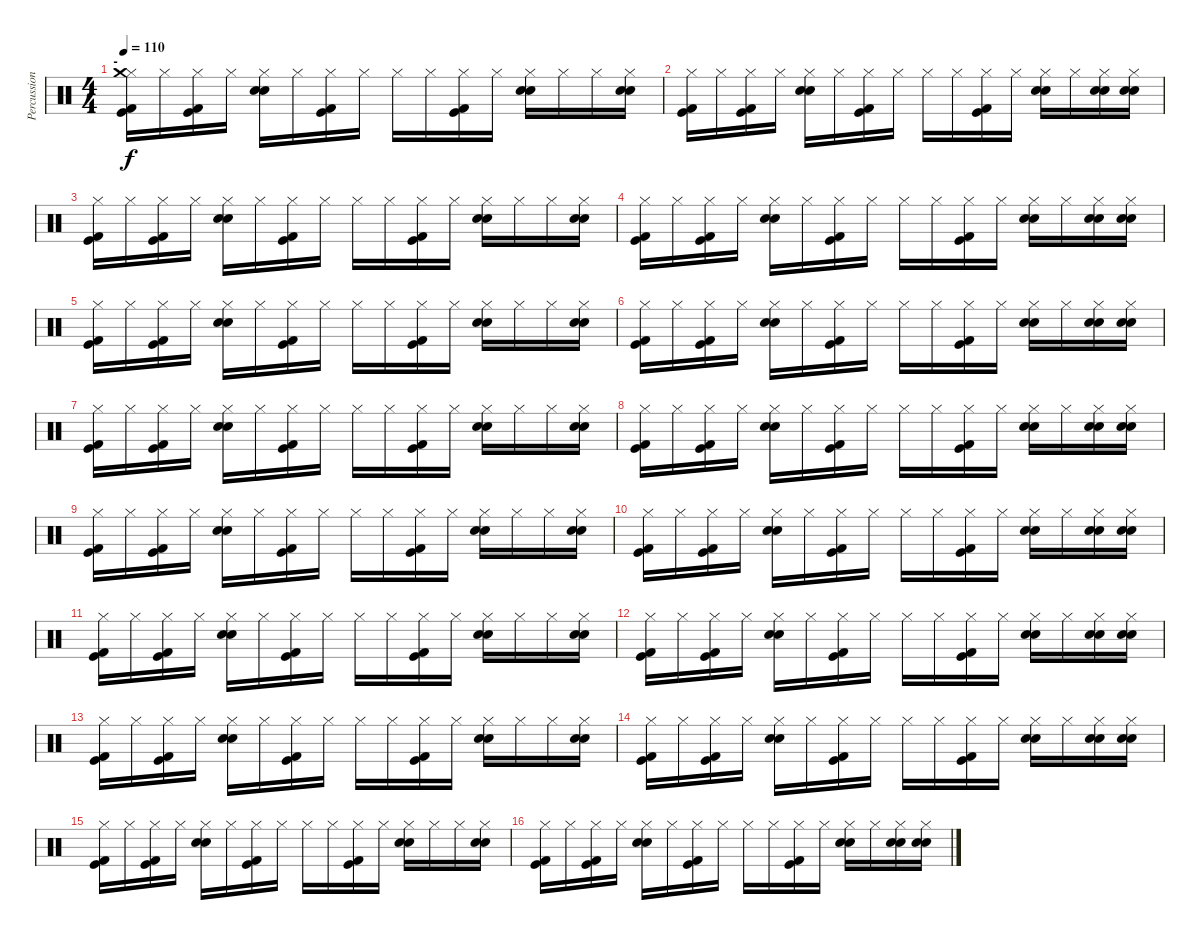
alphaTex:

\track ("Percussion" "Percussion") {instrument percussion}
\staff {score}
\articulation defaults
\ts (4 4)
\section ("" "-")
\tempo 110
\clef neutral
\ks c
("Hi-Hat (closed)" "Crash medium (hit)" "Kick (hit) 2" "Kick (hit)").16{dy f} "Hi-Hat (closed)".16 ("Hi-Hat (closed)" "Kick (hit) 2" "Kick (hit)").16 "Hi-Hat (closed)".16 ("Hi-Hat (closed)" "Electric Snare (hit)" "Snare (hit) 2").16 "Hi-Hat (closed)".16 ("Hi-Hat (closed)" "Kick (hit) 2" "Kick (hit)").16 "Hi-Hat (closed)".16 "Hi-Hat (closed)".16 "Hi-Hat (closed)".16 ("Hi-Hat (closed)" "Kick (hit) 2" "Kick (hit)").16 "Hi-Hat (closed)".16 ("Hi-Hat (closed)" "Electric Snare (hit)" "Snare (hit) 2").16 "Hi-Hat (closed)".16 "Hi-Hat (closed)".16 ("Hi-Hat (closed)" "Electric Snare (hit)" "Snare (hit) 2").16 |
("Hi-Hat (closed)" "Kick (hit) 2" "Kick (hit)").16 "Hi-Hat (closed)".16 ("Hi-Hat (closed)" "Kick (hit) 2" "Kick (hit)").16 "Hi-Hat (closed)".16 ("Hi-Hat (closed)" "Electric Snare (hit)" "Snare (hit) 2").16 "Hi-Hat (closed)".16 ("Hi-Hat (closed)" "Kick (hit) 2" "Kick (hit)").16 "Hi-Hat (closed)".16 "Hi-Hat (closed)".16 "Hi-Hat (closed)".16 ("Hi-Hat (closed)" "Kick (hit) 2" "Kick (hit)").16 "Hi-Hat (closed)".16 ("Hi-Hat (closed)" "Electric Snare (hit)" "Snare (hit) 2").16 "Hi-Hat (closed)".16 ("Hi-Hat (closed)" "Electric Snare (hit)" "Snare (hit) 2").16 ("Hi-Hat (closed)" "Electric Snare (hit)" "Snare (hit) 2").16 |
("Hi-Hat (closed)" "Kick (hit) 2" "Kick (hit)").16 "Hi-Hat (closed)".16 ("Hi-Hat (closed)" "Kick (hit) 2" "Kick (hit)").16 "Hi-Hat (closed)".16 ("Hi-Hat (closed)" "Electric Snare (hit)" "Snare (hit) 2").16 "Hi-Hat (closed)".16 ("Hi-Hat (closed)" "Kick (hit) 2" "Kick (hit)").16 "Hi-Hat (closed)".16 "Hi-Hat (closed)".16 "Hi-Hat (closed)".16 ("Hi-Hat (closed)" "Kick (hit) 2" "Kick (hit)").16 "Hi-Hat (closed)".16 ("Hi-Hat (closed)" "Electric Snare (hit)" "Snare (hit) 2").16 "Hi-Hat (closed)".16 "Hi-Hat (closed)".16 ("Hi-Hat (closed)" "Electric Snare (hit)" "Snare (hit) 2").16 |
("Hi-Hat (closed)" "Kick (hit) 2" "Kick (hit)").16 "Hi-Hat (closed)".16 ("Hi-Hat (closed)" "Kick (hit) 2" "Kick (hit)").16 "Hi-Hat (closed)".16 ("Hi-Hat (closed)" "Electric Snare (hit)" "Snare (hit) 2").16 "Hi-Hat (closed)".16 ("Hi-Hat (closed)" "Kick (hit) 2" "Kick (hit)").16 "Hi-Hat (closed)".16 "Hi-Hat (closed)".16 "Hi-Hat (closed)".16 ("Hi-Hat (closed)" "Kick (hit) 2" "Kick (hit)").16 "Hi-Hat (closed)".16 ("Hi-Hat (closed)" "Electric Snare (hit)" "Snare (hit) 2").16 "Hi-Hat (closed)".16 ("Hi-Hat (closed)" "Electric Snare (hit)" "Snare (hit) 2").16 ("Hi-Hat (closed)" "Electric Snare (hit)" "Snare (hit) 2").16 |
("Hi-Hat (closed)" "Kick (hit) 2" "Kick (hit)").16 "Hi-Hat (closed)".16 ("Hi-Hat (closed)" "Kick (hit) 2" "Kick (hit)").16 "Hi-Hat (closed)".16 ("Hi-Hat (closed)" "Electric Snare (hit)" "Snare (hit) 2").16 "Hi-Hat (closed)".16 ("Hi-Hat (closed)" "Kick (hit) 2" "Kick (hit)").16 "Hi-Hat (closed)".16 "Hi-Hat (closed)".16 "Hi-Hat (closed)".16 ("Hi-Hat (closed)" "Kick (hit) 2" "Kick (hit)").16 "Hi-Hat (closed)".16 ("Hi-Hat (closed)" "Electric Snare (hit)" "Snare (hit) 2").16 "Hi-Hat (closed)".16 "Hi-Hat (closed)".16 ("Hi-Hat (closed)" "Electric Snare (hit)" "Snare (hit) 2").16 |
("Hi-Hat (closed)" "Kick (hit) 2" "Kick (hit)").16 "Hi-Hat (closed)".16 ("Hi-Hat (closed)" "Kick (hit) 2" "Kick (hit)").16 "Hi-Hat (closed)".16 ("Hi-Hat (closed)" "Electric Snare (hit)" "Snare (hit) 2").16 "Hi-Hat (closed)".16 ("Hi-Hat (closed)" "Kick (hit) 2" "Kick (hit)").16 "Hi-Hat (closed)".16 "Hi-Hat (closed)".16 "Hi-Hat (closed)".16 ("Hi-Hat (closed)" "Kick (hit) 2" "Kick (hit)").16 "Hi-Hat (closed)".16 ("Hi-Hat (closed)" "Electric Snare (hit)" "Snare (hit) 2").16 "Hi-Hat (closed)".16 ("Hi-Hat (closed)" "Electric Snare (hit)" "Snare (hit) 2").16 ("Hi-Hat (closed)" "Electric Snare (hit)" "Snare (hit) 2").16 |
("Hi-Hat (closed)" "Kick (hit) 2" "Kick (hit)").16 "Hi-Hat (closed)".16 ("Hi-Hat (closed)" "Kick (hit) 2" "Kick (hit)").16 "Hi-Hat (closed)".16 ("Hi-Hat (closed)" "Electric Snare (hit)" "Snare (hit) 2").16 "Hi-Hat (closed)".16 ("Hi-Hat (closed)" "Kick (hit) 2" "Kick (hit)").16 "Hi-Hat (closed)".16 "Hi-Hat (closed)".16 "Hi-Hat (closed)".16 ("Hi-Hat (closed)" "Kick (hit) 2" "Kick (hit)").16 "Hi-Hat (closed)".16 ("Hi-Hat (closed)" "Electric Snare (hit)" "Snare (hit) 2").16 "Hi-Hat (closed)".16 "Hi-Hat (closed)".16 ("Hi-Hat (closed)" "Electric Snare (hit)" "Snare (hit) 2").16 |
("Hi-Hat (closed)" "Kick (hit) 2" "Kick (hit)").16 "Hi-Hat (closed)".16 ("Hi-Hat (closed)" "Kick (hit) 2" "Kick (hit)").16 "Hi-Hat (closed)".16 ("Hi-Hat (closed)" "Electric Snare (hit)" "Snare (hit) 2").16 "Hi-Hat (closed)".16 ("Hi-Hat (closed)" "Kick (hit) 2" "Kick (hit)").16 "Hi-Hat (closed)".16 "Hi-Hat (closed)".16 "Hi-Hat (closed)".16 ("Hi-Hat (closed)" "Kick (hit) 2" "Kick (hit)").16 "Hi-Hat (closed)".16 ("Hi-Hat (closed)" "Electric Snare (hit)" "Snare (hit) 2").16 "Hi-Hat (closed)".16 ("Hi-Hat (closed)" "Electric Snare (hit)" "Snare (hit) 2").16 ("Hi-Hat (closed)" "Electric Snare (hit)" "Snare (hit) 2").16 |
("Hi-Hat (closed)" "Kick (hit) 2" "Kick (hit)").16 "Hi-Hat (closed)".16 ("Hi-Hat (closed)" "Kick (hit) 2" "Kick (hit)").16 "Hi-Hat (closed)".16 ("Hi-Hat (closed)" "Electric Snare (hit)" "Snare (hit) 2").16 "Hi-Hat (closed)".16 ("Hi-Hat (closed)" "Kick (hit) 2" "Kick (hit)").16 "Hi-Hat (closed)".16 "Hi-Hat (closed)".16 "Hi-Hat (closed)".16 ("Hi-Hat (closed)" "Kick (hit) 2" "Kick (hit)").16 "Hi-Hat (closed)".16 ("Hi-Hat (closed)" "Electric Snare (hit)" "Snare (hit) 2").16 "Hi-Hat (closed)".16 "Hi-Hat (closed)".16 ("Hi-Hat (closed)" "Electric Snare (hit)" "Snare (hit) 2").16 |
("Hi-Hat (closed)" "Kick (hit) 2" "Kick (hit)").16 "Hi-Hat (closed)".16 ("Hi-Hat (closed)" "Kick (hit) 2" "Kick (hit)").16 "Hi-Hat (closed)".16 ("Hi-Hat (closed)" "Electric Snare (hit)" "Snare (hit) 2").16 "Hi-Hat (closed)".16 ("Hi-Hat (closed)" "Kick (hit) 2" "Kick (hit)").16 "Hi-Hat (closed)".16 "Hi-Hat (closed)".16 "Hi-Hat (closed)".16 ("Hi-Hat (closed)" "Kick (hit) 2" "Kick (hit)").16 "Hi-Hat (closed)".16 ("Hi-Hat (closed)" "Electric Snare (hit)" "Snare (hit) 2").16 "Hi-Hat (closed)".16 ("Hi-Hat (closed)" "Electric Snare (hit)" "Snare (hit) 2").16 ("Hi-Hat (closed)" "Electric Snare (hit)" "Snare (hit) 2").16 |
("Hi-Hat (closed)" "Kick (hit) 2" "Kick (hit)").16 "Hi-Hat (closed)".16 ("Hi-Hat (closed)" "Kick (hit) 2" "Kick (hit)").16 "Hi-Hat (closed)".16 ("Hi-Hat (closed)" "Electric Snare (hit)" "Snare (hit) 2").16 "Hi-Hat (closed)".16 ("Hi-Hat (closed)" "Kick (hit) 2" "Kick (hit)").16 "Hi-Hat (closed)".16 "Hi-Hat (closed)".16 "Hi-Hat (closed)".16 ("Hi-Hat (closed)" "Kick (hit) 2" "Kick (hit)").16 "Hi-Hat (closed)".16 ("Hi-Hat (closed)" "Electric Snare (hit)" "Snare (hit) 2").16 "Hi-Hat (closed)".16 "Hi-Hat (closed)".16 ("Hi-Hat (closed)" "Electric Snare (hit)" "Snare (hit) 2").16 |
("Hi-Hat (closed)" "Kick (hit) 2" "Kick (hit)").16 "Hi-Hat (closed)".16 ("Hi-Hat (closed)" "Kick (hit) 2" "Kick (hit)").16 "Hi-Hat (closed)".16 ("Hi-Hat (closed)" "Electric Snare (hit)" "Snare (hit) 2").16 "Hi-Hat (closed)".16 ("Hi-Hat (closed)" "Kick (hit) 2" "Kick (hit)").16 "Hi-Hat (closed)".16 "Hi-Hat (closed)".16 "Hi-Hat (closed)".16 ("Hi-Hat (closed)" "Kick (hit) 2" "Kick (hit)").16 "Hi-Hat (closed)".16 ("Hi-Hat (closed)" "Electric Snare (hit)" "Snare (hit) 2").16 "Hi-Hat (closed)".16 ("Hi-Hat (closed)" "Electric Snare (hit)" "Snare (hit) 2").16 ("Hi-Hat (closed)" "Electric Snare (hit)" "Snare (hit) 2").16 |
("Hi-Hat (closed)" "Kick (hit) 2" "Kick (hit)").16 "Hi-Hat (closed)".16 ("Hi-Hat (closed)" "Kick (hit) 2" "Kick (hit)").16 "Hi-Hat (closed)".16 ("Hi-Hat (closed)" "Electric Snare (hit)" "Snare (hit) 2").16 "Hi-Hat (closed)".16 ("Hi-Hat (closed)" "Kick (hit) 2" "Kick (hit)").16 "Hi-Hat (closed)".16 "Hi-Hat (closed)".16 "Hi-Hat (closed)".16 ("Hi-Hat (closed)" "Kick (hit) 2" "Kick (hit)").16 "Hi-Hat (closed)".16 ("Hi-Hat (closed)" "Electric Snare (hit)" "Snare (hit) 2").16 "Hi-Hat (closed)".16 "Hi-Hat (closed)".16 ("Hi-Hat (closed)" "Electric Snare (hit)" "Snare (hit) 2").16 |
("Hi-Hat (closed)" "Kick (hit) 2" "Kick (hit)").16 "Hi-Hat (closed)".16 ("Hi-Hat (closed)" "Kick (hit) 2" "Kick (hit)").16 "Hi-Hat (closed)".16 ("Hi-Hat (closed)" "Electric Snare (hit)" "Snare (hit) 2").16 "Hi-Hat (closed)".16 ("Hi-Hat (closed)" "Kick (hit) 2" "Kick (hit)").16 "Hi-Hat (closed)".16 "Hi-Hat (closed)".16 "Hi-Hat (closed)".16 ("Hi-Hat (closed)" "Kick (hit) 2" "Kick (hit)").16 "Hi-Hat (closed)".16 ("Hi-Hat (closed)" "Electric Snare (hit)" "Snare (hit) 2").16 "Hi-Hat (closed)".16 ("Hi-Hat (closed)" "Electric Snare (hit)" "Snare (hit) 2").16 ("Hi-Hat (closed)" "Electric Snare (hit)" "Snare (hit) 2").16 |
("Hi-Hat (closed)" "Kick (hit) 2" "Kick (hit)").16 "Hi-Hat (closed)".16 ("Hi-Hat (closed)" "Kick (hit) 2" "Kick (hit)").16 "Hi-Hat (closed)".16 ("Hi-Hat (closed)" "Electric Snare (hit)" "Snare (hit) 2").16 "Hi-Hat (closed)".16 ("Hi-Hat (closed)" "Kick (hit) 2" "Kick (hit)").16 "Hi-Hat (closed)".16 "Hi-Hat (closed)".16 "Hi-Hat (closed)".16 ("Hi-Hat (closed)" "Kick (hit) 2" "Kick (hit)").16 "Hi-Hat (closed)".16 ("Hi-Hat (closed)" "Electric Snare (hit)" "Snare (hit) 2").16 "Hi-Hat (closed)".16 "Hi-Hat (closed)".16 ("Hi-Hat (closed)" "Electric Snare (hit)" "Snare (hit) 2").16 |
("Hi-Hat (closed)" "Kick (hit) 2" "Kick (hit)").16 "Hi-Hat (closed)".16 ("Hi-Hat (closed)" "Kick (hit) 2" "Kick (hit)").16 "Hi-Hat (closed)".16 ("Hi-Hat (closed)" "Electric Snare (hit)" "Snare (hit) 2").16 "Hi-Hat (closed)".16 ("Hi-Hat (closed)" "Kick (hit) 2" "Kick (hit)").16 "Hi-Hat (closed)".16 "Hi-Hat (closed)".16 "Hi-Hat (closed)".16 ("Hi-Hat (closed)" "Kick (hit) 2" "Kick (hit)").16 "Hi-Hat (closed)".16 ("Hi-Hat (closed)" "Electric Snare (hit)" "Snare (hit) 2").16 "Hi-Hat (closed)".16 ("Hi-Hat (closed)" "Electric Snare (hit)" "Snare (hit) 2").16 ("Hi-Hat (closed)" "Electric Snare (hit)" "Snare (hit) 2").16
